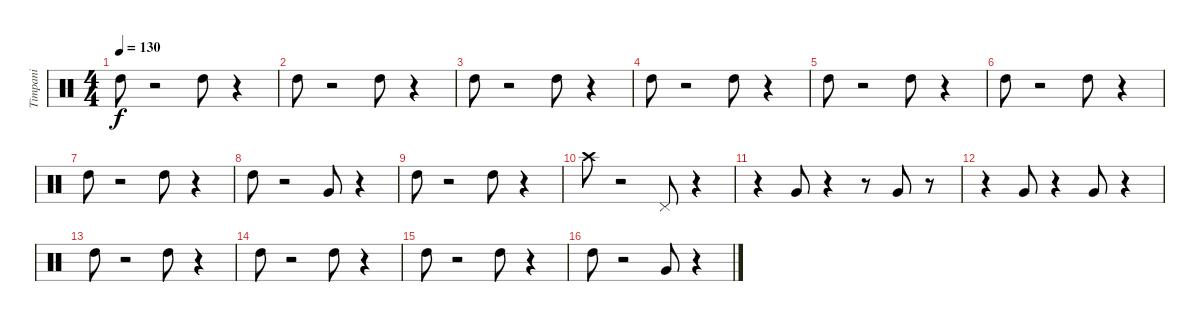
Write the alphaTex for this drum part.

\track ("Timpani" "Timpani") {instrument percussion}
\staff {score}
\articulation defaults
\ts (4 4)
\tempo 130
\clef neutral
\ks c "High Tom (hit)".8{dy f}
r.2 "High Tom (hit)".8 r.4 |
"High Tom (hit)".8 r.2 "High Tom (hit)".8 r.4 |
"High Tom (hit)".8 r.2 "High Tom (hit)".8 r.4 |
"High Tom (hit)".8 r.2 "High Tom (hit)".8 r.4 |
"High Tom (hit)".8 r.2 "High Tom (hit)".8 r.4 |
"High Tom (hit)".8 r.2 "High Tom (hit)".8 r.4 |
"High Tom (hit)".8 r.2 "High Tom (hit)".8 r.4 |
"High Tom (hit)".8 r.2 "Very Low Tom (hit)".8 r.4 |
"High Tom (hit)".8 r.2 "High Tom (hit)".8 r.4 |
"Crash high (hit)".8 r.2 "Pedal Hi-Hat (hit)".8 r.4 |
r.4 "Very Low Tom (hit)".8 r.4 r.8 "Very Low Tom (hit)".8 r.8 |
r.4 "Very Low Tom (hit)".8 r.4 "Very Low Tom (hit)".8 r.4 |
"High Tom (hit)".8 r.2 "High Tom (hit)".8 r.4 |
"High Tom (hit)".8 r.2 "High Tom (hit)".8 r.4 |
"High Tom (hit)".8 r.2 "High Tom (hit)".8 r.4 |
"High Tom (hit)".8 r.2 "Very Low Tom (hit)".8 r.4
